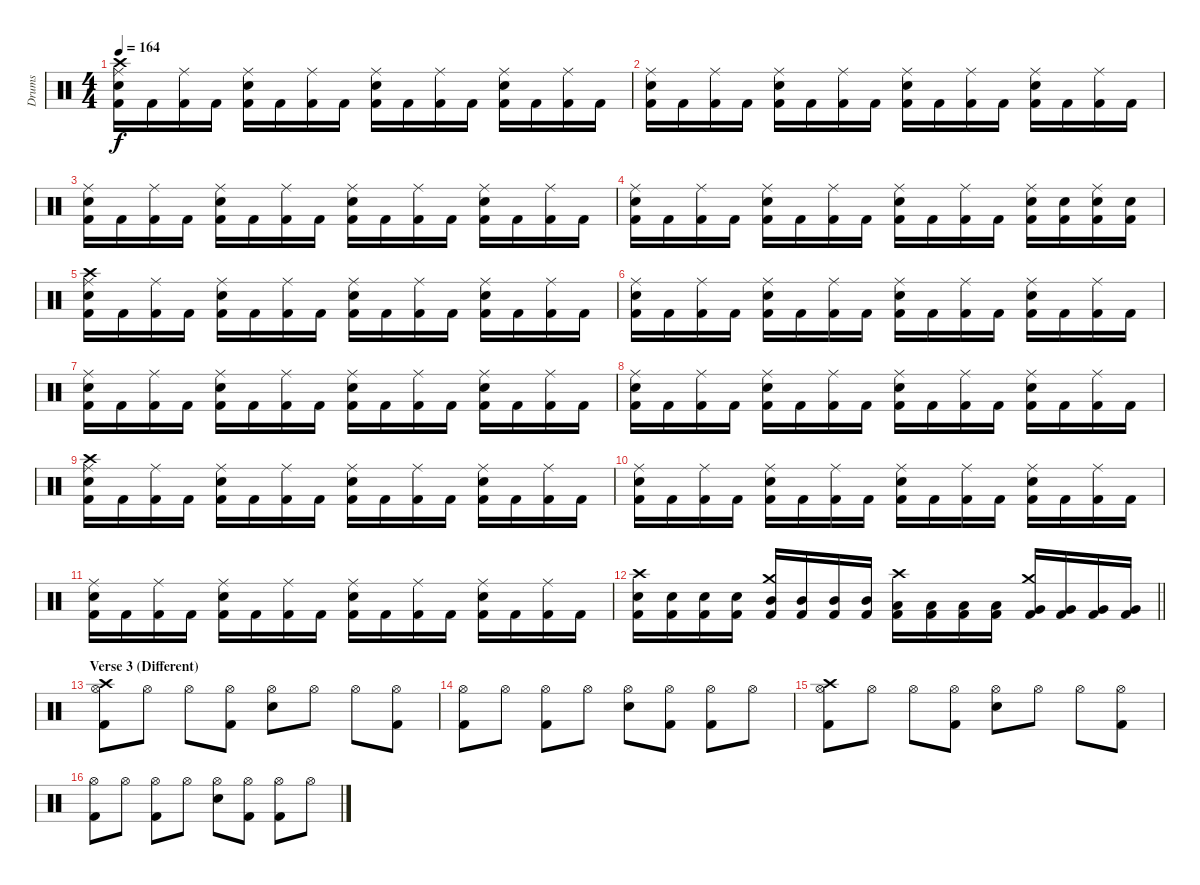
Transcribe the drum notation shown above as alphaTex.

\track ("Drums" "Drums") {instrument percussion}
\staff {score}
\articulation defaults
\ts (4 4)
\tempo 164
\clef neutral
\ks c
("Crash high (hit)" "Ride (middle)" "Snare (hit) 2" "Kick (hit) 2").16{dy f} "Kick (hit) 2".16 ("Ride (middle)" "Kick (hit) 2").16 "Kick (hit) 2".16 ("Ride (middle)" "Snare (hit) 2" "Kick (hit) 2").16 "Kick (hit) 2".16 ("Ride (middle)" "Kick (hit) 2").16 "Kick (hit) 2".16 ("Ride (middle)" "Snare (hit) 2" "Kick (hit) 2").16 "Kick (hit) 2".16 ("Ride (middle)" "Kick (hit) 2").16 "Kick (hit) 2".16 ("Ride (middle)" "Snare (hit) 2" "Kick (hit) 2").16 "Kick (hit) 2".16 ("Ride (middle)" "Kick (hit) 2").16 "Kick (hit) 2".16 |
("Ride (middle)" "Snare (hit) 2" "Kick (hit) 2").16 "Kick (hit) 2".16 ("Ride (middle)" "Kick (hit) 2").16 "Kick (hit) 2".16 ("Ride (middle)" "Snare (hit) 2" "Kick (hit) 2").16 "Kick (hit) 2".16 ("Ride (middle)" "Kick (hit) 2").16 "Kick (hit) 2".16 ("Ride (middle)" "Snare (hit) 2" "Kick (hit) 2").16 "Kick (hit) 2".16 ("Ride (middle)" "Kick (hit) 2").16 "Kick (hit) 2".16 ("Ride (middle)" "Snare (hit) 2" "Kick (hit) 2").16 "Kick (hit) 2".16 ("Ride (middle)" "Kick (hit) 2").16 "Kick (hit) 2".16 |
("Ride (middle)" "Snare (hit) 2" "Kick (hit) 2").16 "Kick (hit) 2".16 ("Ride (middle)" "Kick (hit) 2").16 "Kick (hit) 2".16 ("Ride (middle)" "Snare (hit) 2" "Kick (hit) 2").16 "Kick (hit) 2".16 ("Ride (middle)" "Kick (hit) 2").16 "Kick (hit) 2".16 ("Ride (middle)" "Snare (hit) 2" "Kick (hit) 2").16 "Kick (hit) 2".16 ("Ride (middle)" "Kick (hit) 2").16 "Kick (hit) 2".16 ("Ride (middle)" "Snare (hit) 2" "Kick (hit) 2").16 "Kick (hit) 2".16 ("Ride (middle)" "Kick (hit) 2").16 "Kick (hit) 2".16 |
("Ride (middle)" "Snare (hit) 2" "Kick (hit) 2").16 "Kick (hit) 2".16 ("Ride (middle)" "Kick (hit) 2").16 "Kick (hit) 2".16 ("Ride (middle)" "Snare (hit) 2" "Kick (hit) 2").16 "Kick (hit) 2".16 ("Ride (middle)" "Kick (hit) 2").16 "Kick (hit) 2".16 ("Ride (middle)" "Snare (hit) 2" "Kick (hit) 2").16 "Kick (hit) 2".16 ("Ride (middle)" "Kick (hit) 2").16 "Kick (hit) 2".16 ("Ride (middle)" "Snare (hit) 2" "Kick (hit) 2").16 ("Snare (hit) 2" "Kick (hit) 2").16 ("Ride (middle)" "Snare (hit) 2" "Kick (hit) 2").16 ("Snare (hit) 2" "Kick (hit) 2").16 |
("Crash high (hit)" "Ride (middle)" "Snare (hit) 2" "Kick (hit) 2").16 "Kick (hit) 2".16 ("Ride (middle)" "Kick (hit) 2").16 "Kick (hit) 2".16 ("Ride (middle)" "Snare (hit) 2" "Kick (hit) 2").16 "Kick (hit) 2".16 ("Ride (middle)" "Kick (hit) 2").16 "Kick (hit) 2".16 ("Ride (middle)" "Snare (hit) 2" "Kick (hit) 2").16 "Kick (hit) 2".16 ("Ride (middle)" "Kick (hit) 2").16 "Kick (hit) 2".16 ("Ride (middle)" "Snare (hit) 2" "Kick (hit) 2").16 "Kick (hit) 2".16 ("Ride (middle)" "Kick (hit) 2").16 "Kick (hit) 2".16 |
("Ride (middle)" "Snare (hit) 2" "Kick (hit) 2").16 "Kick (hit) 2".16 ("Ride (middle)" "Kick (hit) 2").16 "Kick (hit) 2".16 ("Ride (middle)" "Snare (hit) 2" "Kick (hit) 2").16 "Kick (hit) 2".16 ("Ride (middle)" "Kick (hit) 2").16 "Kick (hit) 2".16 ("Ride (middle)" "Snare (hit) 2" "Kick (hit) 2").16 "Kick (hit) 2".16 ("Ride (middle)" "Kick (hit) 2").16 "Kick (hit) 2".16 ("Ride (middle)" "Snare (hit) 2" "Kick (hit) 2").16 "Kick (hit) 2".16 ("Ride (middle)" "Kick (hit) 2").16 "Kick (hit) 2".16 |
("Ride (middle)" "Snare (hit) 2" "Kick (hit) 2").16 "Kick (hit) 2".16 ("Ride (middle)" "Kick (hit) 2").16 "Kick (hit) 2".16 ("Ride (middle)" "Snare (hit) 2" "Kick (hit) 2").16 "Kick (hit) 2".16 ("Ride (middle)" "Kick (hit) 2").16 "Kick (hit) 2".16 ("Ride (middle)" "Snare (hit) 2" "Kick (hit) 2").16 "Kick (hit) 2".16 ("Ride (middle)" "Kick (hit) 2").16 "Kick (hit) 2".16 ("Ride (middle)" "Snare (hit) 2" "Kick (hit) 2").16 "Kick (hit) 2".16 ("Ride (middle)" "Kick (hit) 2").16 "Kick (hit) 2".16 |
("Ride (middle)" "Snare (hit) 2" "Kick (hit) 2").16 "Kick (hit) 2".16 ("Ride (middle)" "Kick (hit) 2").16 "Kick (hit) 2".16 ("Ride (middle)" "Snare (hit) 2" "Kick (hit) 2").16 "Kick (hit) 2".16 ("Ride (middle)" "Kick (hit) 2").16 "Kick (hit) 2".16 ("Ride (middle)" "Snare (hit) 2" "Kick (hit) 2").16 "Kick (hit) 2".16 ("Ride (middle)" "Kick (hit) 2").16 "Kick (hit) 2".16 ("Ride (middle)" "Snare (hit) 2" "Kick (hit) 2").16 "Kick (hit) 2".16 ("Ride (middle)" "Kick (hit) 2").16 "Kick (hit) 2".16 |
("Crash high (hit)" "Ride (middle)" "Snare (hit) 2" "Kick (hit) 2").16 "Kick (hit) 2".16 ("Ride (middle)" "Kick (hit) 2").16 "Kick (hit) 2".16 ("Ride (middle)" "Snare (hit) 2" "Kick (hit) 2").16 "Kick (hit) 2".16 ("Ride (middle)" "Kick (hit) 2").16 "Kick (hit) 2".16 ("Ride (middle)" "Snare (hit) 2" "Kick (hit) 2").16 "Kick (hit) 2".16 ("Ride (middle)" "Kick (hit) 2").16 "Kick (hit) 2".16 ("Ride (middle)" "Snare (hit) 2" "Kick (hit) 2").16 "Kick (hit) 2".16 ("Ride (middle)" "Kick (hit) 2").16 "Kick (hit) 2".16 |
("Ride (middle)" "Snare (hit) 2" "Kick (hit) 2").16 "Kick (hit) 2".16 ("Ride (middle)" "Kick (hit) 2").16 "Kick (hit) 2".16 ("Ride (middle)" "Snare (hit) 2" "Kick (hit) 2").16 "Kick (hit) 2".16 ("Ride (middle)" "Kick (hit) 2").16 "Kick (hit) 2".16 ("Ride (middle)" "Snare (hit) 2" "Kick (hit) 2").16 "Kick (hit) 2".16 ("Ride (middle)" "Kick (hit) 2").16 "Kick (hit) 2".16 ("Ride (middle)" "Snare (hit) 2" "Kick (hit) 2").16 "Kick (hit) 2".16 ("Ride (middle)" "Kick (hit) 2").16 "Kick (hit) 2".16 |
("Ride (middle)" "Snare (hit) 2" "Kick (hit) 2").16 "Kick (hit) 2".16 ("Ride (middle)" "Kick (hit) 2").16 "Kick (hit) 2".16 ("Ride (middle)" "Snare (hit) 2" "Kick (hit) 2").16 "Kick (hit) 2".16 ("Ride (middle)" "Kick (hit) 2").16 "Kick (hit) 2".16 ("Ride (middle)" "Snare (hit) 2" "Kick (hit) 2").16 "Kick (hit) 2".16 ("Ride (middle)" "Kick (hit) 2").16 "Kick (hit) 2".16 ("Ride (middle)" "Snare (hit) 2" "Kick (hit) 2").16 "Kick (hit) 2".16 ("Ride (middle)" "Kick (hit) 2").16 "Kick (hit) 2".16 |
\barLineRight lightlight
("Crash high (hit)" "Snare (hit) 2" "Kick (hit) 2").16 ("Snare (hit) 2" "Kick (hit) 2").16 ("Snare (hit) 2" "Kick (hit) 2").16 ("Snare (hit) 2" "Kick (hit) 2").16 ("Crash medium (hit)" "Mid Tom (hit)" "Kick (hit) 2").16 ("Mid Tom (hit)" "Kick (hit) 2").16 ("Mid Tom (hit)" "Kick (hit) 2").16 ("Mid Tom (hit)" "Kick (hit) 2").16 ("Crash high (hit)" "Low Tom (hit)" "Kick (hit) 2").16 ("Low Tom (hit)" "Kick (hit) 2").16 ("Low Tom (hit)" "Kick (hit) 2").16 ("Low Tom (hit)" "Kick (hit) 2").16 ("Crash medium (hit)" "Very Low Tom (hit)" "Kick (hit) 2").16 ("Very Low Tom (hit)" "Kick (hit) 2").16 ("Very Low Tom (hit)" "Kick (hit) 2").16 ("Very Low Tom (hit)" "Kick (hit) 2").16 |
\section ("" "Verse 3 (Different)")
("Crash high (hit)" "Hi-Hat (open)" "Kick (hit) 2").8 "Hi-Hat (open)".8 "Hi-Hat (open)".8 ("Hi-Hat (open)" "Kick (hit) 2").8 ("Hi-Hat (open)" "Snare (hit) 2").8 "Hi-Hat (open)".8 "Hi-Hat (open)".8 ("Hi-Hat (open)" "Kick (hit) 2").8 |
("Hi-Hat (open)" "Kick (hit) 2").8 "Hi-Hat (open)".8 ("Hi-Hat (open)" "Kick (hit) 2").8 "Hi-Hat (open)".8 ("Hi-Hat (open)" "Snare (hit) 2").8 ("Hi-Hat (open)" "Kick (hit) 2").8 ("Hi-Hat (open)" "Kick (hit) 2").8 "Hi-Hat (open)".8 |
("Crash high (hit)" "Hi-Hat (open)" "Kick (hit) 2").8 "Hi-Hat (open)".8 "Hi-Hat (open)".8 ("Hi-Hat (open)" "Kick (hit) 2").8 ("Hi-Hat (open)" "Snare (hit) 2").8 "Hi-Hat (open)".8 "Hi-Hat (open)".8 ("Hi-Hat (open)" "Kick (hit) 2").8 |
("Hi-Hat (open)" "Kick (hit) 2").8 "Hi-Hat (open)".8 ("Hi-Hat (open)" "Kick (hit) 2").8 "Hi-Hat (open)".8 ("Hi-Hat (open)" "Snare (hit) 2").8 ("Hi-Hat (open)" "Kick (hit) 2").8 ("Hi-Hat (open)" "Kick (hit) 2").8 "Hi-Hat (open)".8
